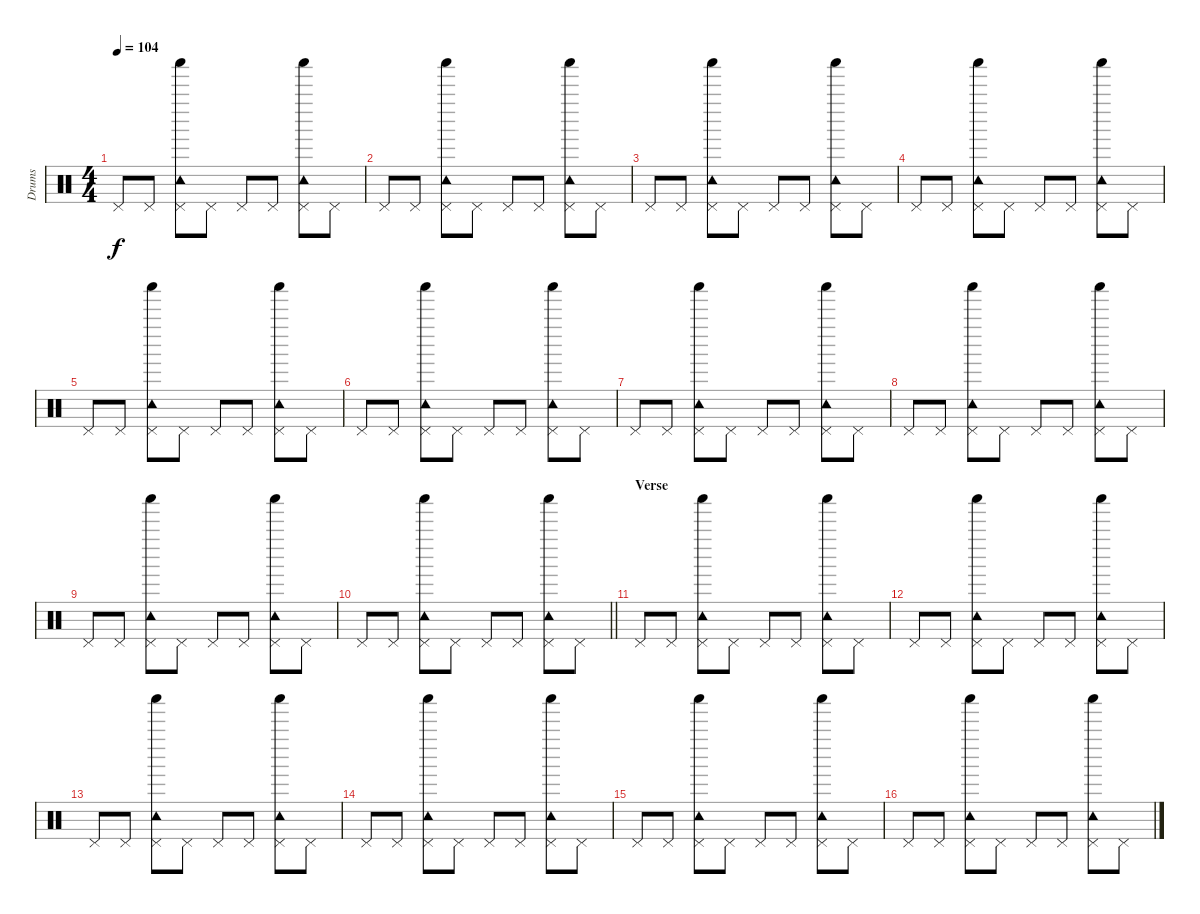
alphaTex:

\track ("Drums" "Drums") {instrument percussion}
\staff {score}
\articulation defaults
\ts (4 4)
\tempo 104
\clef neutral
\ks c "Pedal Hi-Hat (hit)".8{dy f} "Pedal Hi-Hat (hit)".8
("Pedal Hi-Hat (hit)" "Tambourine (hit)" "Shaker (hit)").8 "Pedal Hi-Hat (hit)".8 "Pedal Hi-Hat (hit)".8 "Pedal Hi-Hat (hit)".8 ("Pedal Hi-Hat (hit)" "Tambourine (hit)" "Shaker (hit)").8 "Pedal Hi-Hat (hit)".8 |
"Pedal Hi-Hat (hit)".8 "Pedal Hi-Hat (hit)".8 ("Pedal Hi-Hat (hit)" "Tambourine (hit)" "Shaker (hit)").8 "Pedal Hi-Hat (hit)".8 "Pedal Hi-Hat (hit)".8 "Pedal Hi-Hat (hit)".8 ("Pedal Hi-Hat (hit)" "Tambourine (hit)" "Shaker (hit)").8 "Pedal Hi-Hat (hit)".8 |
"Pedal Hi-Hat (hit)".8 "Pedal Hi-Hat (hit)".8 ("Pedal Hi-Hat (hit)" "Tambourine (hit)" "Shaker (hit)").8 "Pedal Hi-Hat (hit)".8 "Pedal Hi-Hat (hit)".8 "Pedal Hi-Hat (hit)".8 ("Pedal Hi-Hat (hit)" "Tambourine (hit)" "Shaker (hit)").8 "Pedal Hi-Hat (hit)".8 |
"Pedal Hi-Hat (hit)".8 "Pedal Hi-Hat (hit)".8 ("Pedal Hi-Hat (hit)" "Tambourine (hit)" "Shaker (hit)").8 "Pedal Hi-Hat (hit)".8 "Pedal Hi-Hat (hit)".8 "Pedal Hi-Hat (hit)".8 ("Pedal Hi-Hat (hit)" "Tambourine (hit)" "Shaker (hit)").8 "Pedal Hi-Hat (hit)".8 |
"Pedal Hi-Hat (hit)".8 "Pedal Hi-Hat (hit)".8 ("Pedal Hi-Hat (hit)" "Tambourine (hit)" "Shaker (hit)").8 "Pedal Hi-Hat (hit)".8 "Pedal Hi-Hat (hit)".8 "Pedal Hi-Hat (hit)".8 ("Pedal Hi-Hat (hit)" "Tambourine (hit)" "Shaker (hit)").8 "Pedal Hi-Hat (hit)".8 |
"Pedal Hi-Hat (hit)".8 "Pedal Hi-Hat (hit)".8 ("Pedal Hi-Hat (hit)" "Tambourine (hit)" "Shaker (hit)").8 "Pedal Hi-Hat (hit)".8 "Pedal Hi-Hat (hit)".8 "Pedal Hi-Hat (hit)".8 ("Pedal Hi-Hat (hit)" "Tambourine (hit)" "Shaker (hit)").8 "Pedal Hi-Hat (hit)".8 |
"Pedal Hi-Hat (hit)".8 "Pedal Hi-Hat (hit)".8 ("Pedal Hi-Hat (hit)" "Tambourine (hit)" "Shaker (hit)").8 "Pedal Hi-Hat (hit)".8 "Pedal Hi-Hat (hit)".8 "Pedal Hi-Hat (hit)".8 ("Pedal Hi-Hat (hit)" "Tambourine (hit)" "Shaker (hit)").8 "Pedal Hi-Hat (hit)".8 |
"Pedal Hi-Hat (hit)".8 "Pedal Hi-Hat (hit)".8 ("Pedal Hi-Hat (hit)" "Tambourine (hit)" "Shaker (hit)").8 "Pedal Hi-Hat (hit)".8 "Pedal Hi-Hat (hit)".8 "Pedal Hi-Hat (hit)".8 ("Pedal Hi-Hat (hit)" "Tambourine (hit)" "Shaker (hit)").8 "Pedal Hi-Hat (hit)".8 |
"Pedal Hi-Hat (hit)".8 "Pedal Hi-Hat (hit)".8 ("Pedal Hi-Hat (hit)" "Tambourine (hit)" "Shaker (hit)").8 "Pedal Hi-Hat (hit)".8 "Pedal Hi-Hat (hit)".8 "Pedal Hi-Hat (hit)".8 ("Pedal Hi-Hat (hit)" "Tambourine (hit)" "Shaker (hit)").8 "Pedal Hi-Hat (hit)".8 |
\barLineRight lightlight "Pedal Hi-Hat (hit)".8 "Pedal Hi-Hat (hit)".8
("Pedal Hi-Hat (hit)" "Tambourine (hit)" "Shaker (hit)").8 "Pedal Hi-Hat (hit)".8 "Pedal Hi-Hat (hit)".8 "Pedal Hi-Hat (hit)".8 ("Pedal Hi-Hat (hit)" "Tambourine (hit)" "Shaker (hit)").8 "Pedal Hi-Hat (hit)".8 |
\section ("" "Verse")
"Pedal Hi-Hat (hit)".8 "Pedal Hi-Hat (hit)".8 ("Pedal Hi-Hat (hit)" "Tambourine (hit)" "Shaker (hit)").8 "Pedal Hi-Hat (hit)".8 "Pedal Hi-Hat (hit)".8 "Pedal Hi-Hat (hit)".8 ("Pedal Hi-Hat (hit)" "Tambourine (hit)" "Shaker (hit)").8 "Pedal Hi-Hat (hit)".8 |
"Pedal Hi-Hat (hit)".8 "Pedal Hi-Hat (hit)".8 ("Pedal Hi-Hat (hit)" "Tambourine (hit)" "Shaker (hit)").8 "Pedal Hi-Hat (hit)".8 "Pedal Hi-Hat (hit)".8 "Pedal Hi-Hat (hit)".8 ("Pedal Hi-Hat (hit)" "Tambourine (hit)" "Shaker (hit)").8 "Pedal Hi-Hat (hit)".8 |
"Pedal Hi-Hat (hit)".8 "Pedal Hi-Hat (hit)".8 ("Pedal Hi-Hat (hit)" "Tambourine (hit)" "Shaker (hit)").8 "Pedal Hi-Hat (hit)".8 "Pedal Hi-Hat (hit)".8 "Pedal Hi-Hat (hit)".8 ("Pedal Hi-Hat (hit)" "Tambourine (hit)" "Shaker (hit)").8 "Pedal Hi-Hat (hit)".8 |
"Pedal Hi-Hat (hit)".8 "Pedal Hi-Hat (hit)".8 ("Pedal Hi-Hat (hit)" "Tambourine (hit)" "Shaker (hit)").8 "Pedal Hi-Hat (hit)".8 "Pedal Hi-Hat (hit)".8 "Pedal Hi-Hat (hit)".8 ("Pedal Hi-Hat (hit)" "Tambourine (hit)" "Shaker (hit)").8 "Pedal Hi-Hat (hit)".8 |
"Pedal Hi-Hat (hit)".8 "Pedal Hi-Hat (hit)".8 ("Pedal Hi-Hat (hit)" "Tambourine (hit)" "Shaker (hit)").8 "Pedal Hi-Hat (hit)".8 "Pedal Hi-Hat (hit)".8 "Pedal Hi-Hat (hit)".8 ("Pedal Hi-Hat (hit)" "Tambourine (hit)" "Shaker (hit)").8 "Pedal Hi-Hat (hit)".8 |
"Pedal Hi-Hat (hit)".8 "Pedal Hi-Hat (hit)".8 ("Pedal Hi-Hat (hit)" "Tambourine (hit)" "Shaker (hit)").8 "Pedal Hi-Hat (hit)".8 "Pedal Hi-Hat (hit)".8 "Pedal Hi-Hat (hit)".8 ("Pedal Hi-Hat (hit)" "Tambourine (hit)" "Shaker (hit)").8 "Pedal Hi-Hat (hit)".8
